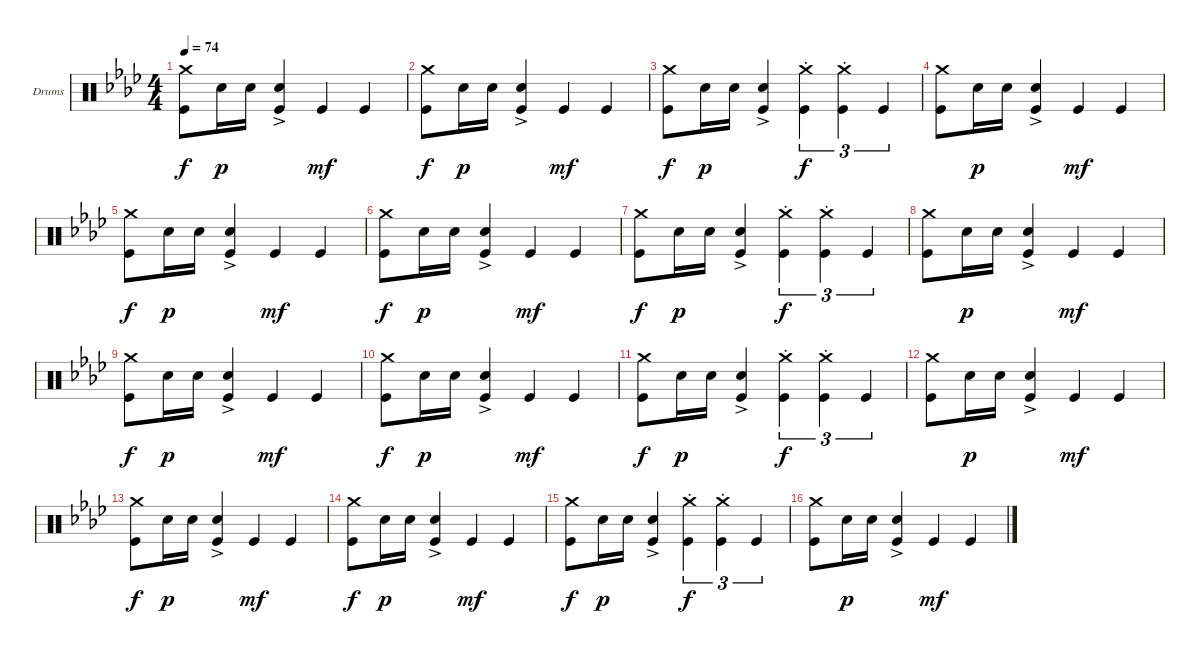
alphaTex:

\defaultSystemsLayout 4
\bracketExtendMode groupsimilarinstruments
\firstSystemTrackNameOrientation horizontal
\otherSystemsTrackNameOrientation horizontal
\track ("Drumkit" "Drums") {instrument percussion}
\staff {score}
\articulation defaults
\ts (4 4)
\tempo 74
\clef neutral
\ks ab
("Kick (hit)" "Crash medium (hit)").8{dy f} "Snare (hit) 2".16{dy p} "Snare (hit) 2".16 ("Kick (hit)"{ac} "Snare (hit) 2").4 "Kick (hit)".4{dy mf} "Kick (hit)".4 |
("Kick (hit)" "Crash medium (hit)").8{dy f} "Snare (hit) 2".16{dy p} "Snare (hit) 2".16 ("Kick (hit)"{ac} "Snare (hit) 2").4 "Kick (hit)".4{dy mf} "Kick (hit)".4 |
("Kick (hit)" "Crash medium (hit)").8{dy f} "Snare (hit) 2".16{dy p} "Snare (hit) 2".16 ("Kick (hit)"{ac} "Snare (hit) 2").4 ("Kick (hit)" "Crash medium (hit)"{st}).4{tu (3 2) dy f} ("Kick (hit)" "Crash medium (hit)"{st}).4{tu (3 2)} "Kick (hit)".4{tu (3 2)} |
("Kick (hit)" "Crash medium (hit)").8 "Snare (hit) 2".16{dy p} "Snare (hit) 2".16 ("Kick (hit)"{ac} "Snare (hit) 2").4 "Kick (hit)".4{dy mf} "Kick (hit)".4 |
("Kick (hit)" "Crash medium (hit)").8{dy f} "Snare (hit) 2".16{dy p} "Snare (hit) 2".16 ("Kick (hit)"{ac} "Snare (hit) 2").4 "Kick (hit)".4{dy mf} "Kick (hit)".4 |
("Kick (hit)" "Crash medium (hit)").8{dy f} "Snare (hit) 2".16{dy p} "Snare (hit) 2".16 ("Kick (hit)"{ac} "Snare (hit) 2").4 "Kick (hit)".4{dy mf} "Kick (hit)".4 |
("Kick (hit)" "Crash medium (hit)").8{dy f} "Snare (hit) 2".16{dy p} "Snare (hit) 2".16 ("Kick (hit)"{ac} "Snare (hit) 2").4 ("Kick (hit)" "Crash medium (hit)"{st}).4{tu (3 2) dy f} ("Kick (hit)" "Crash medium (hit)"{st}).4{tu (3 2)} "Kick (hit)".4{tu (3 2)} |
("Kick (hit)" "Crash medium (hit)").8 "Snare (hit) 2".16{dy p} "Snare (hit) 2".16 ("Kick (hit)"{ac} "Snare (hit) 2").4 "Kick (hit)".4{dy mf} "Kick (hit)".4 |
("Kick (hit)" "Crash medium (hit)").8{dy f} "Snare (hit) 2".16{dy p} "Snare (hit) 2".16 ("Kick (hit)"{ac} "Snare (hit) 2").4 "Kick (hit)".4{dy mf} "Kick (hit)".4 |
("Kick (hit)" "Crash medium (hit)").8{dy f} "Snare (hit) 2".16{dy p} "Snare (hit) 2".16 ("Kick (hit)"{ac} "Snare (hit) 2").4 "Kick (hit)".4{dy mf} "Kick (hit)".4 |
("Kick (hit)" "Crash medium (hit)").8{dy f} "Snare (hit) 2".16{dy p} "Snare (hit) 2".16 ("Kick (hit)"{ac} "Snare (hit) 2").4 ("Kick (hit)" "Crash medium (hit)"{st}).4{tu (3 2) dy f} ("Kick (hit)" "Crash medium (hit)"{st}).4{tu (3 2)} "Kick (hit)".4{tu (3 2)} |
("Kick (hit)" "Crash medium (hit)").8 "Snare (hit) 2".16{dy p} "Snare (hit) 2".16 ("Kick (hit)"{ac} "Snare (hit) 2").4 "Kick (hit)".4{dy mf} "Kick (hit)".4 |
("Kick (hit)" "Crash medium (hit)").8{dy f} "Snare (hit) 2".16{dy p} "Snare (hit) 2".16 ("Kick (hit)"{ac} "Snare (hit) 2").4 "Kick (hit)".4{dy mf} "Kick (hit)".4 |
("Kick (hit)" "Crash medium (hit)").8{dy f} "Snare (hit) 2".16{dy p} "Snare (hit) 2".16 ("Kick (hit)"{ac} "Snare (hit) 2").4 "Kick (hit)".4{dy mf} "Kick (hit)".4 |
("Kick (hit)" "Crash medium (hit)").8{dy f} "Snare (hit) 2".16{dy p} "Snare (hit) 2".16 ("Kick (hit)"{ac} "Snare (hit) 2").4 ("Kick (hit)" "Crash medium (hit)"{st}).4{tu (3 2) dy f} ("Kick (hit)" "Crash medium (hit)"{st}).4{tu (3 2)} "Kick (hit)".4{tu (3 2)} |
("Kick (hit)" "Crash medium (hit)").8 "Snare (hit) 2".16{dy p} "Snare (hit) 2".16 ("Kick (hit)"{ac} "Snare (hit) 2").4 "Kick (hit)".4{dy mf} "Kick (hit)".4
